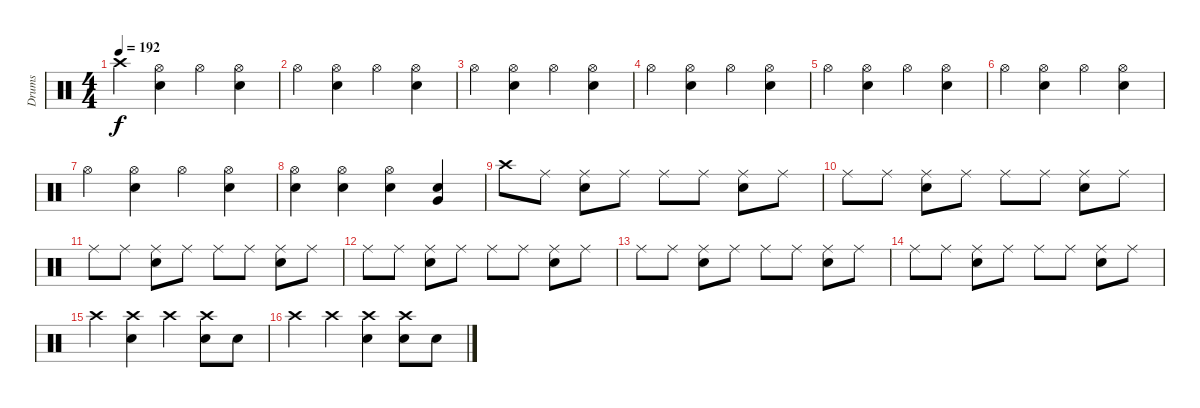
\track ("Drums" "Drums") {instrument percussion}
\staff {score}
\articulation defaults
\ts (4 4)
\tempo 192
\clef neutral
\ks c "Crash high (hit)".4{dy f}
("Hi-Hat (open)" "Snare (hit) 2").4 "Hi-Hat (open)".4 ("Hi-Hat (open)" "Snare (hit) 2").4 |
"Hi-Hat (open)".4 ("Hi-Hat (open)" "Snare (hit) 2").4 "Hi-Hat (open)".4 ("Hi-Hat (open)" "Snare (hit) 2").4 |
"Hi-Hat (open)".4 ("Hi-Hat (open)" "Snare (hit) 2").4 "Hi-Hat (open)".4 ("Hi-Hat (open)" "Snare (hit) 2").4 |
"Hi-Hat (open)".4 ("Hi-Hat (open)" "Snare (hit) 2").4 "Hi-Hat (open)".4 ("Hi-Hat (open)" "Snare (hit) 2").4 |
"Hi-Hat (open)".4 ("Hi-Hat (open)" "Snare (hit) 2").4 "Hi-Hat (open)".4 ("Hi-Hat (open)" "Snare (hit) 2").4 |
"Hi-Hat (open)".4 ("Hi-Hat (open)" "Snare (hit) 2").4 "Hi-Hat (open)".4 ("Hi-Hat (open)" "Snare (hit) 2").4 |
"Hi-Hat (open)".4 ("Hi-Hat (open)" "Snare (hit) 2").4 "Hi-Hat (open)".4 ("Hi-Hat (open)" "Snare (hit) 2").4 |
("Hi-Hat (open)" "Snare (hit) 2").4 ("Hi-Hat (open)" "Snare (hit) 2").4 ("Hi-Hat (open)" "Snare (hit) 2").4 ("Snare (hit) 2" "Very Low Tom (hit)").4 |
"Crash high (hit)".8 "Ride (middle)".8 ("Ride (middle)" "Snare (hit) 2").8 "Ride (middle)".8 "Ride (middle)".8 "Ride (middle)".8 ("Ride (middle)" "Snare (hit) 2").8 "Ride (middle)".8 |
"Ride (middle)".8 "Ride (middle)".8 ("Ride (middle)" "Snare (hit) 2").8 "Ride (middle)".8 "Ride (middle)".8 "Ride (middle)".8 ("Ride (middle)" "Snare (hit) 2").8 "Ride (middle)".8 |
"Ride (middle)".8 "Ride (middle)".8 ("Ride (middle)" "Snare (hit) 2").8 "Ride (middle)".8 "Ride (middle)".8 "Ride (middle)".8 ("Ride (middle)" "Snare (hit) 2").8 "Ride (middle)".8 |
"Ride (middle)".8 "Ride (middle)".8 ("Ride (middle)" "Snare (hit) 2").8 "Ride (middle)".8 "Ride (middle)".8 "Ride (middle)".8 ("Ride (middle)" "Snare (hit) 2").8 "Ride (middle)".8 |
"Ride (middle)".8 "Ride (middle)".8 ("Ride (middle)" "Snare (hit) 2").8 "Ride (middle)".8 "Ride (middle)".8 "Ride (middle)".8 ("Ride (middle)" "Snare (hit) 2").8 "Ride (middle)".8 |
"Ride (middle)".8 "Ride (middle)".8 ("Ride (middle)" "Snare (hit) 2").8 "Ride (middle)".8 "Ride (middle)".8 "Ride (middle)".8 ("Ride (middle)" "Snare (hit) 2").8 "Ride (middle)".8 |
"Crash high (hit)".4 ("Crash high (hit)" "Snare (hit) 2").4 "Crash high (hit)".4 ("Crash high (hit)" "Snare (hit) 2").8 "Snare (hit) 2".8 |
"Crash high (hit)".4 "Crash high (hit)".4 ("Crash high (hit)" "Snare (hit) 2").4 ("Crash high (hit)" "Snare (hit) 2").8 "Snare (hit) 2".8
